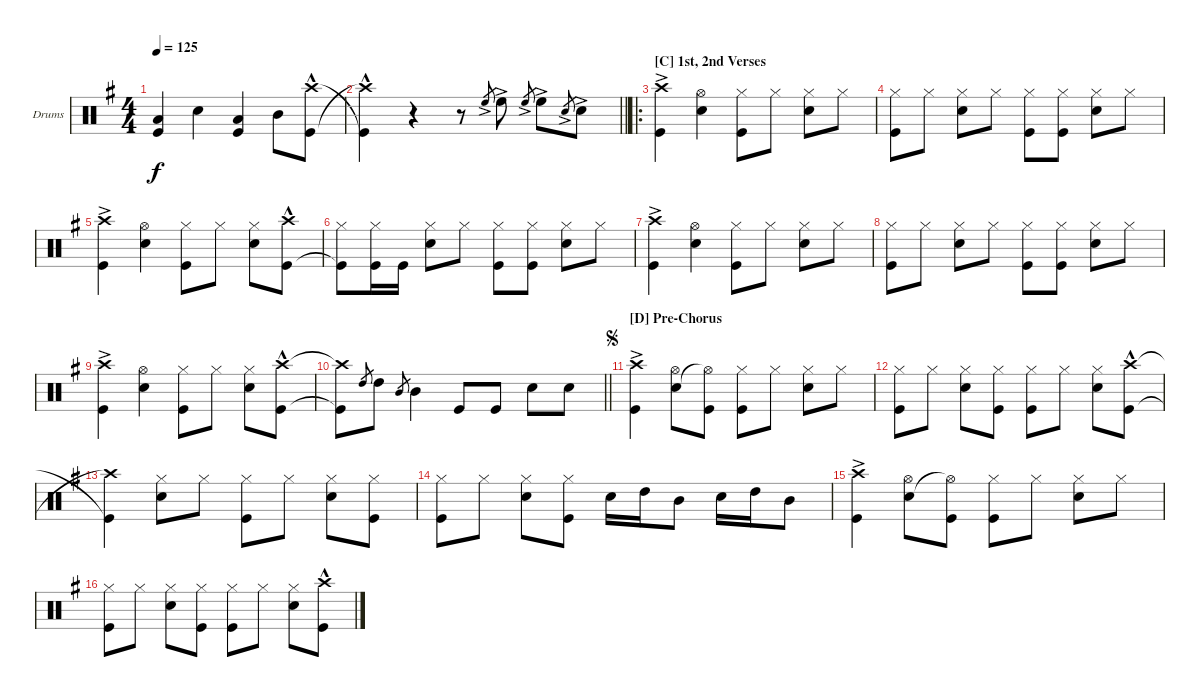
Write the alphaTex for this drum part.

\defaultSystemsLayout 4
\bracketExtendMode groupsimilarinstruments
\firstSystemTrackNameOrientation horizontal
\otherSystemsTrackNameOrientation horizontal
\track ("Mark Cavarzan Drums" "Drums") {instrument percussion}
\staff {score}
\articulation defaults
\ts (4 4)
\tempo 125
\clef neutral
\ks g
("Kick (hit)" "Low Tom (hit)").4{dy f} "Snare (hit) 2".4 ("Low Tom (hit)" "Kick (hit)").4 "Mid Tom (hit)".8 ("Kick (hit)"{hac} "Crash high (hit)"{hac}).8 |
\barLineRight lightlight
("Crash high (hit)"{hac t} "Kick (hit)"{hac t}).4 r.4 r.8 "High Floor Tom (hit)"{ac}.8{gr} "High Floor Tom (hit)"{ac}.8 "High Floor Tom (hit)"{ac}.8{gr} "High Floor Tom (hit)"{ac}.8 "Snare (hit) 2"{ac}.8{gr} "Snare (hit) 2"{ac}.8 |
\ro
\section ("C" "1st, 2nd Verses")
("Kick (hit)"{ac} "Crash high (hit)"{ac}).4 ("Hi-Hat (open)" "Snare (hit) 2").4 ("Kick (hit)" "Hi-Hat (closed)").8 "Hi-Hat (closed)".8 ("Hi-Hat (closed)" "Snare (hit) 2").8 "Hi-Hat (closed)".8 |
("Hi-Hat (closed)" "Kick (hit)").8 "Hi-Hat (closed)".8 ("Hi-Hat (closed)" "Snare (hit) 2").8 "Hi-Hat (closed)".8 ("Hi-Hat (closed)" "Kick (hit)").8 ("Hi-Hat (closed)" "Kick (hit)").8 ("Hi-Hat (closed)" "Snare (hit) 2").8 "Hi-Hat (closed)".8 |
("Kick (hit)"{ac} "Crash high (hit)"{ac}).4 ("Hi-Hat (open)" "Snare (hit) 2").4 ("Kick (hit)" "Hi-Hat (closed)").8 "Hi-Hat (closed)".8 ("Hi-Hat (closed)" "Snare (hit) 2").8 ("Kick (hit)"{hac} "Crash high (hit)"{hac}).8 |
("Kick (hit)"{t} "Hi-Hat (closed)").8 ("Kick (hit)" "Hi-Hat (closed)").16 "Kick (hit)".16 ("Hi-Hat (closed)" "Snare (hit) 2").8 "Hi-Hat (closed)".8 ("Hi-Hat (closed)" "Kick (hit)").8 ("Hi-Hat (closed)" "Kick (hit)").8 ("Hi-Hat (closed)" "Snare (hit) 2").8 "Hi-Hat (closed)".8 |
("Kick (hit)"{ac} "Crash high (hit)"{ac}).4 ("Hi-Hat (open)" "Snare (hit) 2").4 ("Kick (hit)" "Hi-Hat (closed)").8 "Hi-Hat (closed)".8 ("Hi-Hat (closed)" "Snare (hit) 2").8 "Hi-Hat (closed)".8 |
("Hi-Hat (closed)" "Kick (hit)").8 "Hi-Hat (closed)".8 ("Hi-Hat (closed)" "Snare (hit) 2").8 "Hi-Hat (closed)".8 ("Hi-Hat (closed)" "Kick (hit)").8 ("Hi-Hat (closed)" "Kick (hit)").8 ("Hi-Hat (closed)" "Snare (hit) 2").8 "Hi-Hat (closed)".8 |
("Kick (hit)"{ac} "Crash high (hit)"{ac}).4 ("Hi-Hat (open)" "Snare (hit) 2").4 ("Kick (hit)" "Hi-Hat (closed)").8 "Hi-Hat (closed)".8 ("Hi-Hat (closed)" "Snare (hit) 2").8 ("Kick (hit)"{hac} "Crash high (hit)"{hac}).8 |
\barLineRight lightlight
("Kick (hit)"{t} "Crash high (hit)"{t}).8 "High Tom (hit)".8{gr} "High Tom (hit)".8 "Mid Tom (hit)".8{gr} "Mid Tom (hit)".4 "Kick (hit)".8 "Kick (hit)".8 "Snare (hit) 2".8 "Snare (hit) 2".8 |
\section ("D" "Pre-Chorus")
\jump segno
("Kick (hit)"{ac} "Crash high (hit)"{ac}).4 ("Hi-Hat (open)" "Snare (hit) 2").8 ("Kick (hit)" "Hi-Hat (open)"{t}).8 ("Hi-Hat (closed)" "Kick (hit)").8 "Hi-Hat (closed)".8 ("Hi-Hat (closed)" "Snare (hit) 2").8 "Hi-Hat (closed)".8 |
("Hi-Hat (closed)" "Kick (hit)").8 "Hi-Hat (closed)".8 ("Hi-Hat (closed)" "Snare (hit) 2").8 ("Hi-Hat (closed)" "Kick (hit)").8 ("Hi-Hat (closed)" "Kick (hit)").8 "Hi-Hat (closed)".8 ("Hi-Hat (closed)" "Snare (hit) 2").8 ("Crash high (hit)"{hac} "Kick (hit)"{hac}).8 |
("Kick (hit)"{t} "Crash high (hit)"{t}).4 ("Hi-Hat (closed)" "Snare (hit) 2").8 "Hi-Hat (closed)".8 ("Hi-Hat (closed)" "Kick (hit)").8 "Hi-Hat (closed)".8 ("Hi-Hat (closed)" "Snare (hit) 2").8 ("Hi-Hat (closed)" "Kick (hit)").8 |
("Hi-Hat (closed)" "Kick (hit)").8 "Hi-Hat (closed)".8 ("Hi-Hat (closed)" "Snare (hit) 2").8 ("Hi-Hat (closed)" "Kick (hit)").8 "Snare (hit) 2".16 "High Tom (hit)".16 "Mid Tom (hit)".8 "Snare (hit) 2".16 "High Tom (hit)".16 "Mid Tom (hit)".8 |
("Kick (hit)"{ac} "Crash high (hit)"{ac}).4 ("Hi-Hat (open)" "Snare (hit) 2").8 ("Kick (hit)" "Hi-Hat (open)"{t}).8 ("Hi-Hat (closed)" "Kick (hit)").8 "Hi-Hat (closed)".8 ("Hi-Hat (closed)" "Snare (hit) 2").8 "Hi-Hat (closed)".8 |
("Hi-Hat (closed)" "Kick (hit)").8 "Hi-Hat (closed)".8 ("Hi-Hat (closed)" "Snare (hit) 2").8 ("Hi-Hat (closed)" "Kick (hit)").8 ("Hi-Hat (closed)" "Kick (hit)").8 "Hi-Hat (closed)".8 ("Hi-Hat (closed)" "Snare (hit) 2").8 ("Crash high (hit)"{hac} "Kick (hit)"{hac}).8
